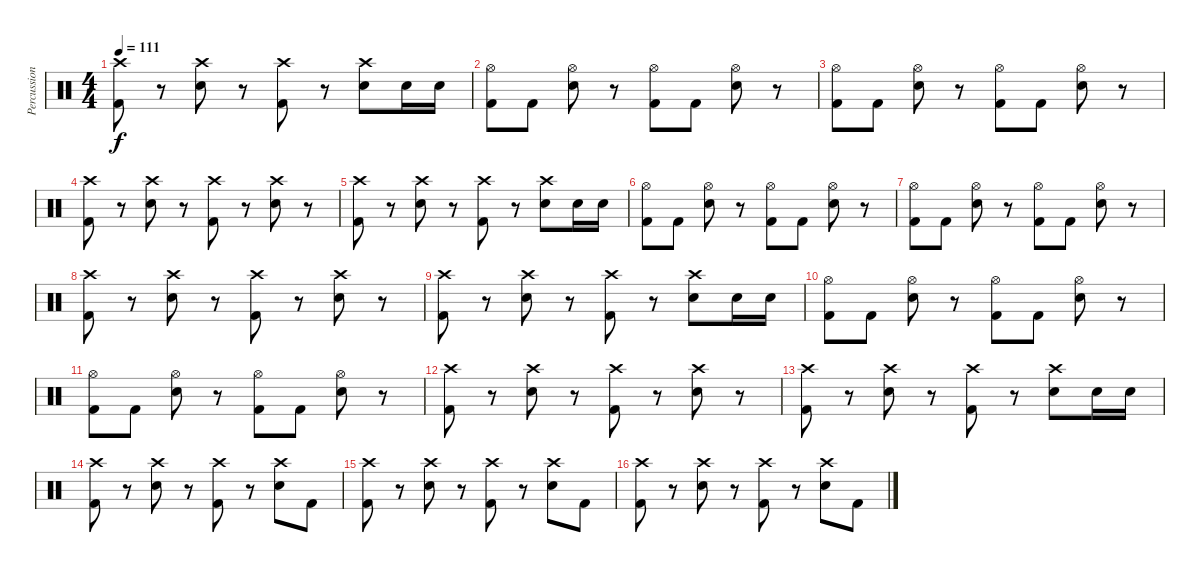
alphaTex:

\track ("Percussion" "Percussion") {instrument percussion}
\staff {score}
\articulation defaults
\ts (4 4)
\tempo 111
\clef neutral
\ks c
("Crash high (hit)" "Kick (hit) 2").8{dy f} r.8 ("Crash high (hit)" "Snare (hit) 2").8 r.8 ("Crash high (hit)" "Kick (hit) 2").8 r.8 ("Crash high (hit)" "Snare (hit) 2").8 "Snare (hit) 2".16 "Snare (hit) 2".16 |
("Hi-Hat (open)" "Kick (hit) 2").8 "Kick (hit) 2".8 ("Hi-Hat (open)" "Snare (hit) 2").8 r.8 ("Hi-Hat (open)" "Kick (hit) 2").8 "Kick (hit) 2".8 ("Hi-Hat (open)" "Snare (hit) 2").8 r.8 |
("Hi-Hat (open)" "Kick (hit) 2").8 "Kick (hit) 2".8 ("Hi-Hat (open)" "Snare (hit) 2").8 r.8 ("Hi-Hat (open)" "Kick (hit) 2").8 "Kick (hit) 2".8 ("Hi-Hat (open)" "Snare (hit) 2").8 r.8 |
("Crash high (hit)" "Kick (hit) 2").8 r.8 ("Crash high (hit)" "Snare (hit) 2").8 r.8 ("Crash high (hit)" "Kick (hit) 2").8 r.8 ("Crash high (hit)" "Snare (hit) 2").8 r.8 |
("Crash high (hit)" "Kick (hit) 2").8 r.8 ("Crash high (hit)" "Snare (hit) 2").8 r.8 ("Crash high (hit)" "Kick (hit) 2").8 r.8 ("Crash high (hit)" "Snare (hit) 2").8 "Snare (hit) 2".16 "Snare (hit) 2".16 |
("Hi-Hat (open)" "Kick (hit) 2").8 "Kick (hit) 2".8 ("Hi-Hat (open)" "Snare (hit) 2").8 r.8 ("Hi-Hat (open)" "Kick (hit) 2").8 "Kick (hit) 2".8 ("Hi-Hat (open)" "Snare (hit) 2").8 r.8 |
("Hi-Hat (open)" "Kick (hit) 2").8 "Kick (hit) 2".8 ("Hi-Hat (open)" "Snare (hit) 2").8 r.8 ("Hi-Hat (open)" "Kick (hit) 2").8 "Kick (hit) 2".8 ("Hi-Hat (open)" "Snare (hit) 2").8 r.8 |
("Crash high (hit)" "Kick (hit) 2").8 r.8 ("Crash high (hit)" "Snare (hit) 2").8 r.8 ("Crash high (hit)" "Kick (hit) 2").8 r.8 ("Crash high (hit)" "Snare (hit) 2").8 r.8 |
("Crash high (hit)" "Kick (hit) 2").8 r.8 ("Crash high (hit)" "Snare (hit) 2").8 r.8 ("Crash high (hit)" "Kick (hit) 2").8 r.8 ("Crash high (hit)" "Snare (hit) 2").8 "Snare (hit) 2".16 "Snare (hit) 2".16 |
("Hi-Hat (open)" "Kick (hit) 2").8 "Kick (hit) 2".8 ("Hi-Hat (open)" "Snare (hit) 2").8 r.8 ("Hi-Hat (open)" "Kick (hit) 2").8 "Kick (hit) 2".8 ("Hi-Hat (open)" "Snare (hit) 2").8 r.8 |
("Hi-Hat (open)" "Kick (hit) 2").8 "Kick (hit) 2".8 ("Hi-Hat (open)" "Snare (hit) 2").8 r.8 ("Hi-Hat (open)" "Kick (hit) 2").8 "Kick (hit) 2".8 ("Hi-Hat (open)" "Snare (hit) 2").8 r.8 |
("Crash high (hit)" "Kick (hit) 2").8 r.8 ("Crash high (hit)" "Snare (hit) 2").8 r.8 ("Crash high (hit)" "Kick (hit) 2").8 r.8 ("Crash high (hit)" "Snare (hit) 2").8 r.8 |
("Crash high (hit)" "Kick (hit) 2").8 r.8 ("Crash high (hit)" "Snare (hit) 2").8 r.8 ("Crash high (hit)" "Kick (hit) 2").8 r.8 ("Crash high (hit)" "Snare (hit) 2").8 "Snare (hit) 2".16 "Snare (hit) 2".16 |
("Crash high (hit)" "Kick (hit) 2").8 r.8 ("Crash high (hit)" "Snare (hit) 2").8 r.8 ("Crash high (hit)" "Kick (hit) 2").8 r.8 ("Crash high (hit)" "Snare (hit) 2").8 "Kick (hit) 2".8 |
("Crash high (hit)" "Kick (hit) 2").8 r.8 ("Crash high (hit)" "Snare (hit) 2").8 r.8 ("Crash high (hit)" "Kick (hit) 2").8 r.8 ("Crash high (hit)" "Snare (hit) 2").8 "Kick (hit) 2".8 |
("Crash high (hit)" "Kick (hit) 2").8 r.8 ("Crash high (hit)" "Snare (hit) 2").8 r.8 ("Crash high (hit)" "Kick (hit) 2").8 r.8 ("Crash high (hit)" "Snare (hit) 2").8 "Kick (hit) 2".8
